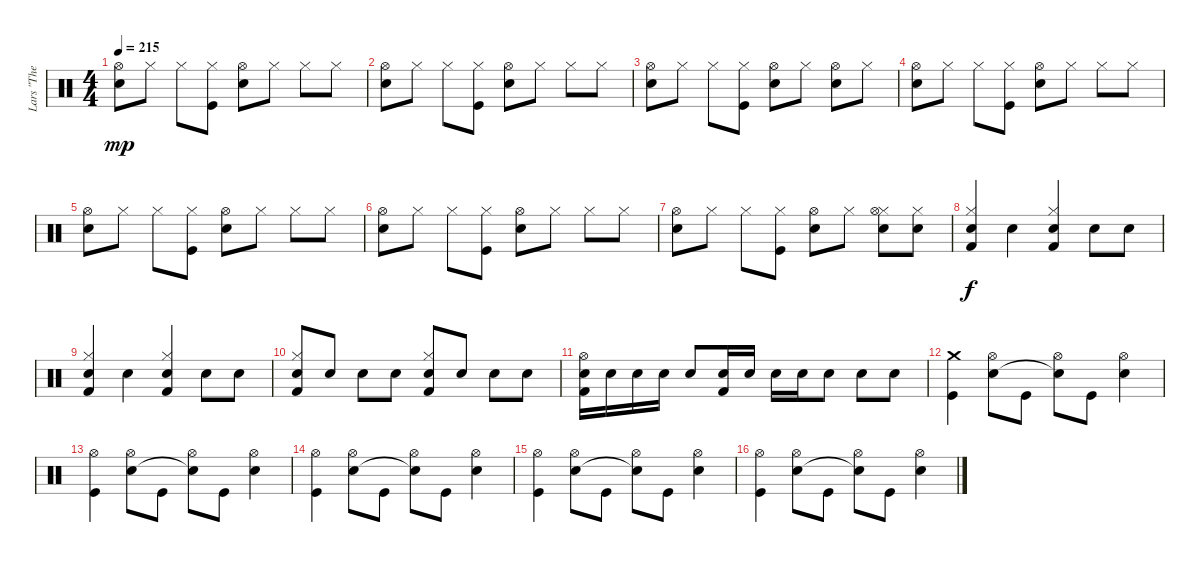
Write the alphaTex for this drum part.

\track ("Lars \"The Antichrist\" Ulrich" "Lars \"The ") {instrument percussion}
\staff {score}
\articulation defaults
\ts (4 4)
\tempo 215
\clef neutral
\ks c
("Hi-Hat (open)" "Electric Snare (hit)").8{dy mp} "Hi-Hat (closed)".8 "Hi-Hat (closed)".8 ("Hi-Hat (closed)" "Kick (hit)").8 ("Hi-Hat (open)" "Electric Snare (hit)").8 "Hi-Hat (closed)".8 "Hi-Hat (closed)".8 "Hi-Hat (closed)".8 |
("Hi-Hat (open)" "Electric Snare (hit)").8 "Hi-Hat (closed)".8 "Hi-Hat (closed)".8 ("Hi-Hat (closed)" "Kick (hit)").8 ("Hi-Hat (open)" "Electric Snare (hit)").8 "Hi-Hat (closed)".8 "Hi-Hat (closed)".8 "Hi-Hat (closed)".8 |
("Hi-Hat (open)" "Electric Snare (hit)").8 "Hi-Hat (closed)".8 "Hi-Hat (closed)".8 ("Hi-Hat (closed)" "Kick (hit)").8 ("Hi-Hat (open)" "Electric Snare (hit)").8 "Hi-Hat (closed)".8 ("Hi-Hat (open)" "Electric Snare (hit)").8 "Hi-Hat (closed)".8 |
("Hi-Hat (open)" "Electric Snare (hit)").8 "Hi-Hat (closed)".8 "Hi-Hat (closed)".8 ("Hi-Hat (closed)" "Kick (hit)").8 ("Hi-Hat (open)" "Electric Snare (hit)").8 "Hi-Hat (closed)".8 "Hi-Hat (closed)".8 "Hi-Hat (closed)".8 |
("Hi-Hat (open)" "Electric Snare (hit)").8 "Hi-Hat (closed)".8 "Hi-Hat (closed)".8 ("Hi-Hat (closed)" "Kick (hit)").8 ("Hi-Hat (open)" "Electric Snare (hit)").8 "Hi-Hat (closed)".8 "Hi-Hat (closed)".8 "Hi-Hat (closed)".8 |
("Hi-Hat (open)" "Electric Snare (hit)").8 "Hi-Hat (closed)".8 "Hi-Hat (closed)".8 ("Hi-Hat (closed)" "Kick (hit)").8 ("Hi-Hat (open)" "Electric Snare (hit)").8 "Hi-Hat (closed)".8 "Hi-Hat (closed)".8 "Hi-Hat (closed)".8 |
("Hi-Hat (open)" "Electric Snare (hit)").8 "Hi-Hat (closed)".8 "Hi-Hat (closed)".8 ("Hi-Hat (closed)" "Kick (hit)").8 ("Hi-Hat (open)" "Electric Snare (hit)").8 "Hi-Hat (closed)".8 ("Hi-Hat (closed)" "Hi-Hat (open)" "Electric Snare (hit)").8 ("Hi-Hat (closed)" "Electric Snare (hit)").8 |
("Hi-Hat (closed)" "Electric Snare (hit)" "Kick (hit) 2").4{dy f} "Electric Snare (hit)".4 ("Hi-Hat (closed)" "Electric Snare (hit)" "Kick (hit) 2").4 "Electric Snare (hit)".8 "Electric Snare (hit)".8 |
("Hi-Hat (closed)" "Electric Snare (hit)" "Kick (hit) 2").4 "Electric Snare (hit)".4 ("Hi-Hat (closed)" "Electric Snare (hit)" "Kick (hit) 2").4 "Electric Snare (hit)".8 "Electric Snare (hit)".8 |
("Hi-Hat (closed)" "Electric Snare (hit)" "Kick (hit) 2").8 "Electric Snare (hit)".8 "Electric Snare (hit)".8 "Electric Snare (hit)".8 ("Hi-Hat (closed)" "Electric Snare (hit)" "Kick (hit) 2").8 "Electric Snare (hit)".8 "Electric Snare (hit)".8 "Electric Snare (hit)".8 |
("Hi-Hat (open)" "Electric Snare (hit)" "Kick (hit) 2").16 "Electric Snare (hit)".16 "Electric Snare (hit)".16 "Electric Snare (hit)".16 "Electric Snare (hit)".8 ("Electric Snare (hit)" "Kick (hit) 2").16 "Electric Snare (hit)".16 "Electric Snare (hit)".16 "Electric Snare (hit)".16 "Electric Snare (hit)".8 "Electric Snare (hit)".8 "Electric Snare (hit)".8 |
("Crash medium (hit)" "Kick (hit)").4 ("Hi-Hat (open)" "Electric Snare (hit)").8 "Kick (hit)".8 ("Hi-Hat (open)" "Snare (hit)"{t}).8 "Kick (hit)".8 ("Hi-Hat (open)" "Electric Snare (hit)").4 |
("Hi-Hat (open)" "Kick (hit)").4 ("Hi-Hat (open)" "Electric Snare (hit)").8 "Kick (hit)".8 ("Hi-Hat (open)" "Snare (hit)"{t}).8 "Kick (hit)".8 ("Hi-Hat (open)" "Electric Snare (hit)").4 |
("Hi-Hat (open)" "Kick (hit)").4 ("Hi-Hat (open)" "Electric Snare (hit)").8 "Kick (hit)".8 ("Hi-Hat (open)" "Snare (hit)"{t}).8 "Kick (hit)".8 ("Hi-Hat (open)" "Electric Snare (hit)").4 |
("Hi-Hat (open)" "Kick (hit)").4 ("Hi-Hat (open)" "Electric Snare (hit)").8 "Kick (hit)".8 ("Hi-Hat (open)" "Snare (hit)"{t}).8 "Kick (hit)".8 ("Hi-Hat (open)" "Electric Snare (hit)").4 |
("Hi-Hat (open)" "Kick (hit)").4 ("Hi-Hat (open)" "Electric Snare (hit)").8 "Kick (hit)".8 ("Hi-Hat (open)" "Snare (hit)"{t}).8 "Kick (hit)".8 ("Hi-Hat (open)" "Electric Snare (hit)").4
